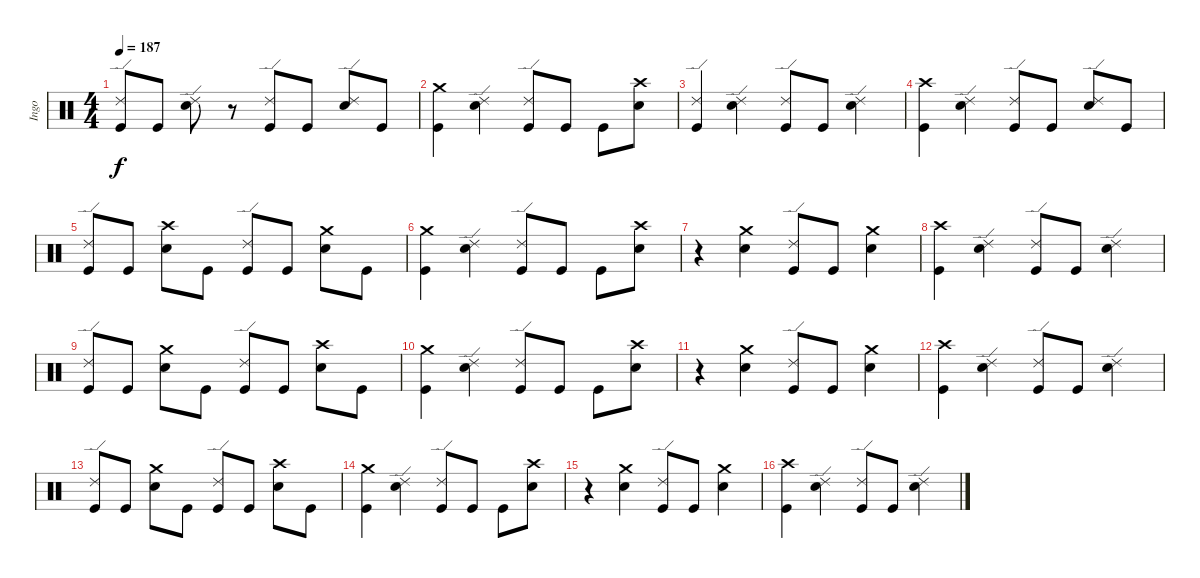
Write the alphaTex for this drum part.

\track ("Ingo" "Ingo") {instrument percussion}
\staff {score}
\articulation defaults
\ts (4 4)
\tempo 187
\clef neutral
\ks c
("Ride (edge) 2" "Kick (hit)").8{dy f} "Kick (hit)".8 ("Ride (edge) 2" "Snare (hit) 2").8 r.8 ("Ride (edge) 2" "Kick (hit)").8 "Kick (hit)".8 ("Ride (edge) 2" "Snare (hit) 2").8 "Kick (hit)".8 |
("Crash medium (hit)" "Kick (hit)").4 ("Ride (edge) 2" "Snare (hit) 2").4 ("Ride (edge) 2" "Kick (hit)").8 "Kick (hit)".8 "Kick (hit)".8 ("Crash high (hit)" "Snare (hit) 2").8 |
("Ride (edge) 2" "Kick (hit)").4 ("Ride (edge) 2" "Snare (hit) 2").4 ("Ride (edge) 2" "Kick (hit)").8 "Kick (hit)".8 ("Ride (edge) 2" "Snare (hit) 2").4 |
("Crash high (hit)" "Kick (hit)").4 ("Ride (edge) 2" "Snare (hit) 2").4 ("Ride (edge) 2" "Kick (hit)").8 "Kick (hit)".8 ("Ride (edge) 2" "Snare (hit) 2").8 "Kick (hit)".8 |
("Ride (edge) 2" "Kick (hit)").8 "Kick (hit)".8 ("Crash high (hit)" "Snare (hit) 2").8 "Kick (hit)".8 ("Ride (edge) 2" "Kick (hit)").8 "Kick (hit)".8 ("Crash medium (hit)" "Snare (hit) 2").8 "Kick (hit)".8 |
("Crash medium (hit)" "Kick (hit)").4 ("Ride (edge) 2" "Snare (hit) 2").4 ("Ride (edge) 2" "Kick (hit)").8 "Kick (hit)".8 "Kick (hit)".8 ("Crash high (hit)" "Snare (hit) 2").8 |
r.4 ("Crash medium (hit)" "Snare (hit) 2").4 ("Ride (edge) 2" "Kick (hit)").8 "Kick (hit)".8 ("Crash medium (hit)" "Snare (hit) 2").4 |
("Crash high (hit)" "Kick (hit)").4 ("Ride (edge) 2" "Snare (hit) 2").4 ("Ride (edge) 2" "Kick (hit)").8 "Kick (hit)".8 ("Ride (edge) 2" "Snare (hit) 2").4 |
("Ride (edge) 2" "Kick (hit)").8 "Kick (hit)".8 ("Crash medium (hit)" "Snare (hit) 2").8 "Kick (hit)".8 ("Ride (edge) 2" "Kick (hit)").8 "Kick (hit)".8 ("Crash high (hit)" "Snare (hit) 2").8 "Kick (hit)".8 |
("Crash medium (hit)" "Kick (hit)").4 ("Ride (edge) 2" "Snare (hit) 2").4 ("Ride (edge) 2" "Kick (hit)").8 "Kick (hit)".8 "Kick (hit)".8 ("Crash high (hit)" "Snare (hit) 2").8 |
r.4 ("Crash medium (hit)" "Snare (hit) 2").4 ("Ride (edge) 2" "Kick (hit)").8 "Kick (hit)".8 ("Crash medium (hit)" "Snare (hit) 2").4 |
("Crash high (hit)" "Kick (hit)").4 ("Ride (edge) 2" "Snare (hit) 2").4 ("Ride (edge) 2" "Kick (hit)").8 "Kick (hit)".8 ("Ride (edge) 2" "Snare (hit) 2").4 |
("Ride (edge) 2" "Kick (hit)").8 "Kick (hit)".8 ("Crash medium (hit)" "Snare (hit) 2").8 "Kick (hit)".8 ("Ride (edge) 2" "Kick (hit)").8 "Kick (hit)".8 ("Crash high (hit)" "Snare (hit) 2").8 "Kick (hit)".8 |
("Crash medium (hit)" "Kick (hit)").4 ("Ride (edge) 2" "Snare (hit) 2").4 ("Ride (edge) 2" "Kick (hit)").8 "Kick (hit)".8 "Kick (hit)".8 ("Crash high (hit)" "Snare (hit) 2").8 |
r.4 ("Crash medium (hit)" "Snare (hit) 2").4 ("Ride (edge) 2" "Kick (hit)").8 "Kick (hit)".8 ("Crash medium (hit)" "Snare (hit) 2").4 |
("Crash high (hit)" "Kick (hit)").4 ("Ride (edge) 2" "Snare (hit) 2").4 ("Ride (edge) 2" "Kick (hit)").8 "Kick (hit)".8 ("Ride (edge) 2" "Snare (hit) 2").4
